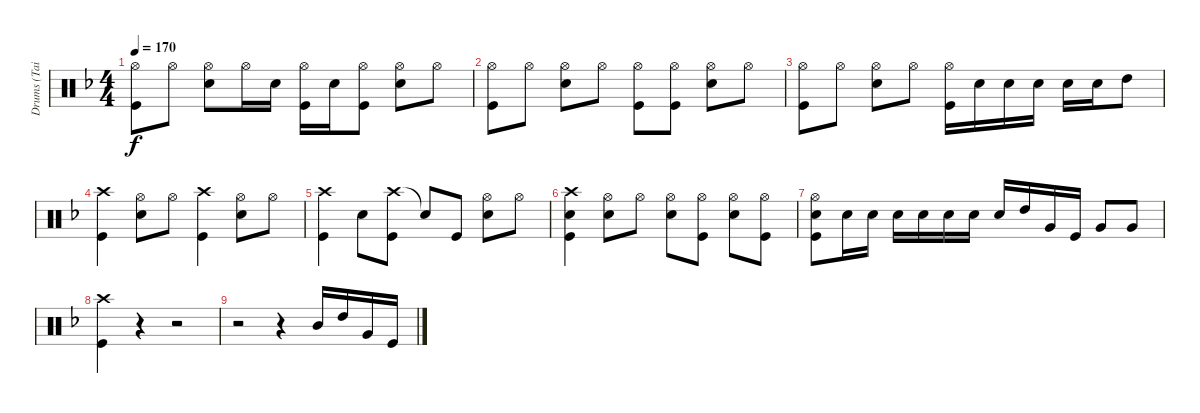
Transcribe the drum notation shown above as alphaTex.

\track ("Drums (Tainaka Ritsu)" "Drums (Tai") {instrument percussion}
\staff {score}
\articulation defaults
\ts (4 4)
\tempo 170
\clef neutral
\ks f
("Hi-Hat (open)" "Kick (hit)").8{dy f} "Hi-Hat (open)".8 ("Hi-Hat (open)" "Snare (hit) 2").8 "Hi-Hat (open)".16 "Snare (hit) 2".16 ("Hi-Hat (open)" "Kick (hit)").16 "Snare (hit) 2".16 ("Hi-Hat (open)" "Kick (hit)").8 ("Hi-Hat (open)" "Snare (hit) 2").8 "Hi-Hat (open)".8 |
("Hi-Hat (open)" "Kick (hit)").8 "Hi-Hat (open)".8 ("Hi-Hat (open)" "Snare (hit) 2").8 "Hi-Hat (open)".8 ("Hi-Hat (open)" "Kick (hit)").8 ("Hi-Hat (open)" "Kick (hit)").8 ("Hi-Hat (open)" "Snare (hit) 2").8 "Hi-Hat (open)".8 |
("Hi-Hat (open)" "Kick (hit)").8 "Hi-Hat (open)".8 ("Hi-Hat (open)" "Snare (hit) 2").8 "Hi-Hat (open)".8 ("Hi-Hat (open)" "Kick (hit)").16 "Snare (hit) 2".16 "Snare (hit) 2".16 "Snare (hit) 2".16 "Snare (hit) 2".16 "Snare (hit) 2".16 "High Tom (hit)".8 |
("Crash high (hit)" "Kick (hit)").4 ("Hi-Hat (open)" "Snare (hit) 2").8 "Hi-Hat (open)".8 ("Crash high (hit)" "Kick (hit)").4 ("Hi-Hat (open)" "Snare (hit) 2").8 "Hi-Hat (open)".8 |
("Crash high (hit)" "Kick (hit)").4 "Snare (hit) 2".8 ("Crash high (hit)" "Kick (hit)").8 "Snare (hit)"{t}.8 "Kick (hit)".8 ("Hi-Hat (open)" "Snare (hit) 2").8 "Hi-Hat (open)".8 |
("Crash high (hit)" "Snare (hit) 2" "Kick (hit)").4 ("Hi-Hat (open)" "Snare (hit) 2").8 "Hi-Hat (open)".8 ("Hi-Hat (open)" "Snare (hit) 2").8 ("Hi-Hat (open)" "Kick (hit)").8 ("Hi-Hat (open)" "Snare (hit) 2").8 ("Hi-Hat (open)" "Kick (hit)").8 |
("Hi-Hat (open)" "Snare (hit) 2" "Kick (hit)").8 "Snare (hit) 2".16 "Snare (hit) 2".16 "Snare (hit) 2".16 "Snare (hit) 2".16 "Snare (hit) 2".16 "Snare (hit) 2".16 "Snare (hit) 2".16 "High Tom (hit)".16 "Very Low Tom (hit)".16 "Kick (hit)".16 "Very Low Tom (hit)".8 "Very Low Tom (hit)".8 |
("Crash high (hit)" "Kick (hit)").4 r.4 r.2 |
r.2 r.4 "Mid Tom (hit)".16 "High Tom (hit)".16 "Very Low Tom (hit)".16 "Kick (hit)".16
